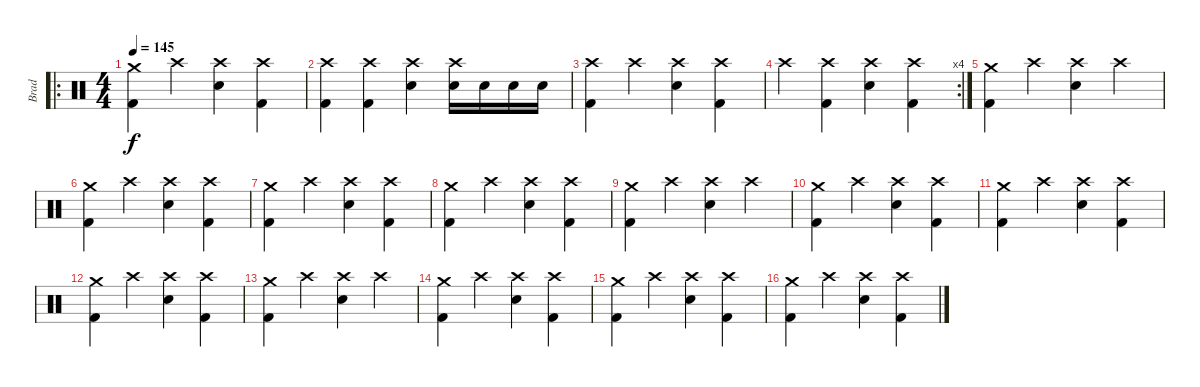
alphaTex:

\track ("Brad" "Brad") {instrument percussion}
\staff {score}
\articulation defaults
\ro
\ts (4 4)
\tempo 145
\clef neutral
\ks c
("Kick (hit) 2" "Crash medium (hit)").4{dy f} "Crash high (hit)".4 ("Snare (hit) 2" "Crash high (hit)").4 ("Kick (hit) 2" "Crash high (hit)").4 |
("Kick (hit) 2" "Crash high (hit)").4 ("Kick (hit) 2" "Crash high (hit)").4 ("Snare (hit) 2" "Crash high (hit)").4 ("Snare (hit) 2" "Crash high (hit)").16 "Snare (hit) 2".16 "Snare (hit) 2".16 "Snare (hit) 2".16 |
("Kick (hit) 2" "Crash high (hit)").4 "Crash high (hit)".4 ("Snare (hit) 2" "Crash high (hit)").4 ("Kick (hit) 2" "Crash high (hit)").4 |
\rc 4 "Crash high (hit)".4
("Kick (hit) 2" "Crash high (hit)").4 ("Snare (hit) 2" "Crash high (hit)").4 ("Kick (hit) 2" "Crash high (hit)").4 |
("Kick (hit) 2" "Crash medium (hit)").4 "Crash high (hit)".4 ("Snare (hit) 2" "Crash high (hit)").4 "Crash high (hit)".4 |
("Kick (hit) 2" "Crash medium (hit)").4 "Crash high (hit)".4 ("Snare (hit) 2" "Crash high (hit)").4 ("Kick (hit) 2" "Crash high (hit)").4 |
("Kick (hit) 2" "Crash medium (hit)").4 "Crash high (hit)".4 ("Snare (hit) 2" "Crash high (hit)").4 ("Kick (hit) 2" "Crash high (hit)").4 |
("Kick (hit) 2" "Crash medium (hit)").4 "Crash high (hit)".4 ("Snare (hit) 2" "Crash high (hit)").4 ("Kick (hit) 2" "Crash high (hit)").4 |
("Kick (hit) 2" "Crash medium (hit)").4 "Crash high (hit)".4 ("Snare (hit) 2" "Crash high (hit)").4 "Crash high (hit)".4 |
("Kick (hit) 2" "Crash medium (hit)").4 "Crash high (hit)".4 ("Snare (hit) 2" "Crash high (hit)").4 ("Kick (hit) 2" "Crash high (hit)").4 |
("Kick (hit) 2" "Crash medium (hit)").4 "Crash high (hit)".4 ("Snare (hit) 2" "Crash high (hit)").4 ("Kick (hit) 2" "Crash high (hit)").4 |
("Kick (hit) 2" "Crash medium (hit)").4 "Crash high (hit)".4 ("Snare (hit) 2" "Crash high (hit)").4 ("Kick (hit) 2" "Crash high (hit)").4 |
("Kick (hit) 2" "Crash medium (hit)").4 "Crash high (hit)".4 ("Snare (hit) 2" "Crash high (hit)").4 "Crash high (hit)".4 |
("Kick (hit) 2" "Crash medium (hit)").4 "Crash high (hit)".4 ("Snare (hit) 2" "Crash high (hit)").4 ("Kick (hit) 2" "Crash high (hit)").4 |
("Kick (hit) 2" "Crash medium (hit)").4 "Crash high (hit)".4 ("Snare (hit) 2" "Crash high (hit)").4 ("Kick (hit) 2" "Crash high (hit)").4 |
("Kick (hit) 2" "Crash medium (hit)").4 "Crash high (hit)".4 ("Snare (hit) 2" "Crash high (hit)").4 ("Kick (hit) 2" "Crash high (hit)").4
